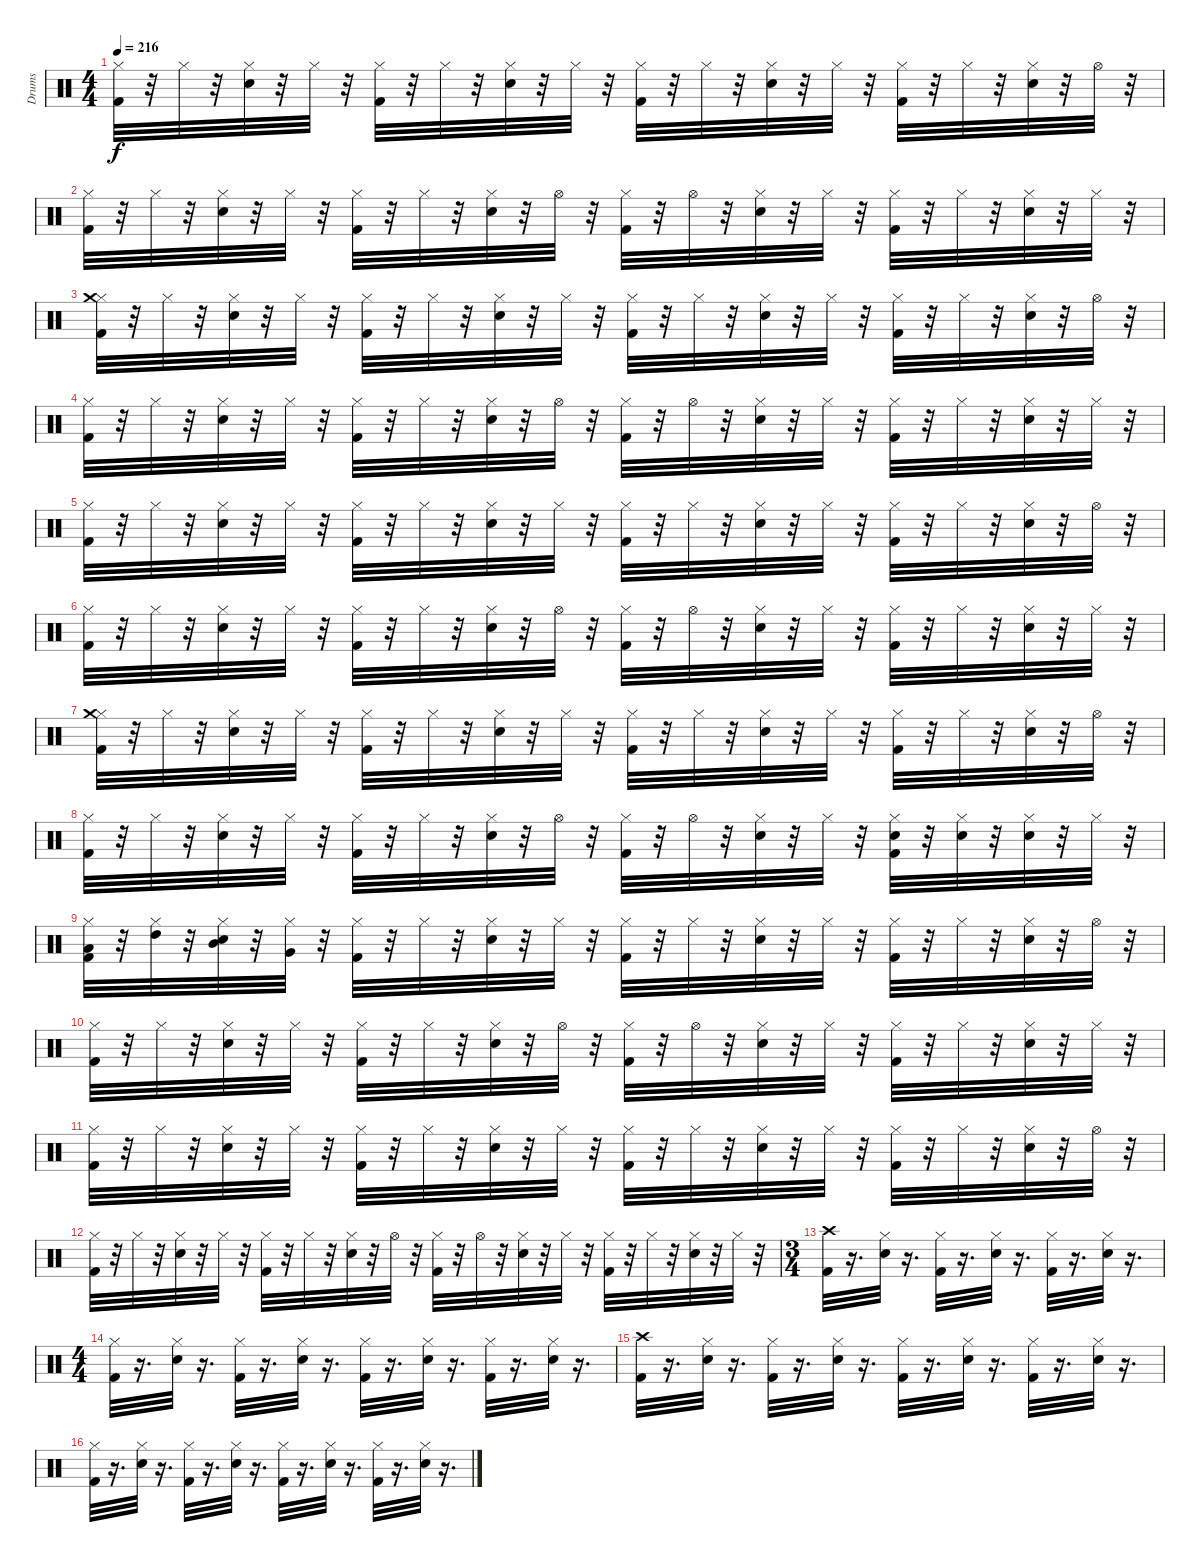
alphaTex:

\track ("Drums" "Drums") {instrument percussion}
\staff {score}
\articulation defaults
\ts (4 4)
\tempo 216
\clef neutral
\ks c
("Kick (hit) 2" "Hi-Hat (closed)").32{dy f} r.32 "Hi-Hat (closed)".32 r.32 ("Snare (hit) 2" "Hi-Hat (closed)").32 r.32 "Hi-Hat (closed)".32 r.32 ("Kick (hit) 2" "Hi-Hat (closed)").32 r.32 "Hi-Hat (closed)".32 r.32 ("Snare (hit) 2" "Hi-Hat (closed)").32 r.32 "Hi-Hat (closed)".32 r.32 ("Kick (hit) 2" "Hi-Hat (closed)").32 r.32 "Hi-Hat (closed)".32 r.32 ("Snare (hit) 2" "Hi-Hat (closed)").32 r.32 "Hi-Hat (closed)".32 r.32 ("Kick (hit) 2" "Hi-Hat (closed)").32 r.32 "Hi-Hat (closed)".32 r.32 ("Snare (hit) 2" "Hi-Hat (closed)").32 r.32 "Hi-Hat (open)".32 r.32 |
("Kick (hit) 2" "Hi-Hat (closed)").32 r.32 "Hi-Hat (closed)".32 r.32 ("Snare (hit) 2" "Hi-Hat (closed)").32 r.32 "Hi-Hat (closed)".32 r.32 ("Kick (hit) 2" "Hi-Hat (closed)").32 r.32 "Hi-Hat (closed)".32 r.32 ("Snare (hit) 2" "Hi-Hat (closed)").32 r.32 "Hi-Hat (open)".32 r.32 ("Kick (hit) 2" "Hi-Hat (closed)").32 r.32 "Hi-Hat (open)".32 r.32 ("Snare (hit) 2" "Hi-Hat (closed)").32 r.32 "Hi-Hat (closed)".32 r.32 ("Kick (hit) 2" "Hi-Hat (closed)").32 r.32 "Hi-Hat (closed)".32 r.32 ("Snare (hit) 2" "Hi-Hat (closed)").32 r.32 "Hi-Hat (closed)".32 r.32 |
("Kick (hit) 2" "Hi-Hat (closed)" "Crash medium (hit)").32 r.32 "Hi-Hat (closed)".32 r.32 ("Snare (hit) 2" "Hi-Hat (closed)").32 r.32 "Hi-Hat (closed)".32 r.32 ("Kick (hit) 2" "Hi-Hat (closed)").32 r.32 "Hi-Hat (closed)".32 r.32 ("Snare (hit) 2" "Hi-Hat (closed)").32 r.32 "Hi-Hat (closed)".32 r.32 ("Kick (hit) 2" "Hi-Hat (closed)").32 r.32 "Hi-Hat (closed)".32 r.32 ("Snare (hit) 2" "Hi-Hat (closed)").32 r.32 "Hi-Hat (closed)".32 r.32 ("Kick (hit) 2" "Hi-Hat (closed)").32 r.32 "Hi-Hat (closed)".32 r.32 ("Snare (hit) 2" "Hi-Hat (closed)").32 r.32 "Hi-Hat (open)".32 r.32 |
("Kick (hit) 2" "Hi-Hat (closed)").32 r.32 "Hi-Hat (closed)".32 r.32 ("Snare (hit) 2" "Hi-Hat (closed)").32 r.32 "Hi-Hat (closed)".32 r.32 ("Kick (hit) 2" "Hi-Hat (closed)").32 r.32 "Hi-Hat (closed)".32 r.32 ("Snare (hit) 2" "Hi-Hat (closed)").32 r.32 "Hi-Hat (open)".32 r.32 ("Kick (hit) 2" "Hi-Hat (closed)").32 r.32 "Hi-Hat (open)".32 r.32 ("Snare (hit) 2" "Hi-Hat (closed)").32 r.32 "Hi-Hat (closed)".32 r.32 ("Kick (hit) 2" "Hi-Hat (closed)").32 r.32 "Hi-Hat (closed)".32 r.32 ("Snare (hit) 2" "Hi-Hat (closed)").32 r.32 "Hi-Hat (closed)".32 r.32 |
("Kick (hit) 2" "Hi-Hat (closed)").32 r.32 "Hi-Hat (closed)".32 r.32 ("Snare (hit) 2" "Hi-Hat (closed)").32 r.32 "Hi-Hat (closed)".32 r.32 ("Kick (hit) 2" "Hi-Hat (closed)").32 r.32 "Hi-Hat (closed)".32 r.32 ("Snare (hit) 2" "Hi-Hat (closed)").32 r.32 "Hi-Hat (closed)".32 r.32 ("Kick (hit) 2" "Hi-Hat (closed)").32 r.32 "Hi-Hat (closed)".32 r.32 ("Snare (hit) 2" "Hi-Hat (closed)").32 r.32 "Hi-Hat (closed)".32 r.32 ("Kick (hit) 2" "Hi-Hat (closed)").32 r.32 "Hi-Hat (closed)".32 r.32 ("Snare (hit) 2" "Hi-Hat (closed)").32 r.32 "Hi-Hat (open)".32 r.32 |
("Kick (hit) 2" "Hi-Hat (closed)").32 r.32 "Hi-Hat (closed)".32 r.32 ("Snare (hit) 2" "Hi-Hat (closed)").32 r.32 "Hi-Hat (closed)".32 r.32 ("Kick (hit) 2" "Hi-Hat (closed)").32 r.32 "Hi-Hat (closed)".32 r.32 ("Snare (hit) 2" "Hi-Hat (closed)").32 r.32 "Hi-Hat (open)".32 r.32 ("Kick (hit) 2" "Hi-Hat (closed)").32 r.32 "Hi-Hat (open)".32 r.32 ("Snare (hit) 2" "Hi-Hat (closed)").32 r.32 "Hi-Hat (closed)".32 r.32 ("Kick (hit) 2" "Hi-Hat (closed)").32 r.32 "Hi-Hat (closed)".32 r.32 ("Snare (hit) 2" "Hi-Hat (closed)").32 r.32 "Hi-Hat (closed)".32 r.32 |
("Kick (hit) 2" "Hi-Hat (closed)" "Crash medium (hit)").32 r.32 "Hi-Hat (closed)".32 r.32 ("Snare (hit) 2" "Hi-Hat (closed)").32 r.32 "Hi-Hat (closed)".32 r.32 ("Kick (hit) 2" "Hi-Hat (closed)").32 r.32 "Hi-Hat (closed)".32 r.32 ("Snare (hit) 2" "Hi-Hat (closed)").32 r.32 "Hi-Hat (closed)".32 r.32 ("Kick (hit) 2" "Hi-Hat (closed)").32 r.32 "Hi-Hat (closed)".32 r.32 ("Snare (hit) 2" "Hi-Hat (closed)").32 r.32 "Hi-Hat (closed)".32 r.32 ("Kick (hit) 2" "Hi-Hat (closed)").32 r.32 "Hi-Hat (closed)".32 r.32 ("Snare (hit) 2" "Hi-Hat (closed)").32 r.32 "Hi-Hat (open)".32 r.32 |
("Kick (hit) 2" "Hi-Hat (closed)").32 r.32 "Hi-Hat (closed)".32 r.32 ("Snare (hit) 2" "Hi-Hat (closed)").32 r.32 "Hi-Hat (closed)".32 r.32 ("Kick (hit) 2" "Hi-Hat (closed)").32 r.32 "Hi-Hat (closed)".32 r.32 ("Snare (hit) 2" "Hi-Hat (closed)").32 r.32 "Hi-Hat (open)".32 r.32 ("Kick (hit) 2" "Hi-Hat (closed)").32 r.32 "Hi-Hat (open)".32 r.32 ("Snare (hit) 2" "Hi-Hat (closed)").32 r.32 "Hi-Hat (closed)".32 r.32 ("Kick (hit) 2" "Hi-Hat (closed)" "Snare (hit) 2").32 r.32 ("Hi-Hat (closed)" "Snare (hit) 2").32 r.32 ("Snare (hit) 2" "Hi-Hat (closed)").32 r.32 "Hi-Hat (closed)".32 r.32 |
("Kick (hit) 2" "Hi-Hat (closed)" "Low Tom (hit)").32 r.32 ("Hi-Hat (closed)" "High Tom (hit)").32 r.32 ("Snare (hit) 2" "Hi-Hat (closed)" "Mid Tom (hit)").32 r.32 ("Hi-Hat (closed)" "Very Low Tom (hit)").32 r.32 ("Kick (hit) 2" "Hi-Hat (closed)").32 r.32 "Hi-Hat (closed)".32 r.32 ("Snare (hit) 2" "Hi-Hat (closed)").32 r.32 "Hi-Hat (closed)".32 r.32 ("Kick (hit) 2" "Hi-Hat (closed)").32 r.32 "Hi-Hat (closed)".32 r.32 ("Snare (hit) 2" "Hi-Hat (closed)").32 r.32 "Hi-Hat (closed)".32 r.32 ("Kick (hit) 2" "Hi-Hat (closed)").32 r.32 "Hi-Hat (closed)".32 r.32 ("Snare (hit) 2" "Hi-Hat (closed)").32 r.32 "Hi-Hat (open)".32 r.32 |
("Kick (hit) 2" "Hi-Hat (closed)").32 r.32 "Hi-Hat (closed)".32 r.32 ("Snare (hit) 2" "Hi-Hat (closed)").32 r.32 "Hi-Hat (closed)".32 r.32 ("Kick (hit) 2" "Hi-Hat (closed)").32 r.32 "Hi-Hat (closed)".32 r.32 ("Snare (hit) 2" "Hi-Hat (closed)").32 r.32 "Hi-Hat (open)".32 r.32 ("Kick (hit) 2" "Hi-Hat (closed)").32 r.32 "Hi-Hat (open)".32 r.32 ("Snare (hit) 2" "Hi-Hat (closed)").32 r.32 "Hi-Hat (closed)".32 r.32 ("Kick (hit) 2" "Hi-Hat (closed)").32 r.32 "Hi-Hat (closed)".32 r.32 ("Snare (hit) 2" "Hi-Hat (closed)").32 r.32 "Hi-Hat (closed)".32 r.32 |
("Kick (hit) 2" "Hi-Hat (closed)").32 r.32 "Hi-Hat (closed)".32 r.32 ("Snare (hit) 2" "Hi-Hat (closed)").32 r.32 "Hi-Hat (closed)".32 r.32 ("Kick (hit) 2" "Hi-Hat (closed)").32 r.32 "Hi-Hat (closed)".32 r.32 ("Snare (hit) 2" "Hi-Hat (closed)").32 r.32 "Hi-Hat (closed)".32 r.32 ("Kick (hit) 2" "Hi-Hat (closed)").32 r.32 "Hi-Hat (closed)".32 r.32 ("Snare (hit) 2" "Hi-Hat (closed)").32 r.32 "Hi-Hat (closed)".32 r.32 ("Kick (hit) 2" "Hi-Hat (closed)").32 r.32 "Hi-Hat (closed)".32 r.32 ("Snare (hit) 2" "Hi-Hat (closed)").32 r.32 "Hi-Hat (open)".32 r.32 |
("Kick (hit) 2" "Hi-Hat (closed)").32 r.32 "Hi-Hat (closed)".32 r.32 ("Snare (hit) 2" "Hi-Hat (closed)").32 r.32 "Hi-Hat (closed)".32 r.32 ("Kick (hit) 2" "Hi-Hat (closed)").32 r.32 "Hi-Hat (closed)".32 r.32 ("Snare (hit) 2" "Hi-Hat (closed)").32 r.32 "Hi-Hat (open)".32 r.32 ("Kick (hit) 2" "Hi-Hat (closed)").32 r.32 "Hi-Hat (open)".32 r.32 ("Snare (hit) 2" "Hi-Hat (closed)").32 r.32 "Hi-Hat (closed)".32 r.32 ("Kick (hit) 2" "Hi-Hat (closed)").32 r.32 "Hi-Hat (closed)".32 r.32 ("Snare (hit) 2" "Hi-Hat (closed)").32 r.32 "Hi-Hat (closed)".32 r.32 |
\ts (3 4)
("Kick (hit) 2" "Crash high (hit)").32 r.16{d} ("Snare (hit) 2" "Hi-Hat (closed)").32 r.16{d} ("Kick (hit) 2" "Hi-Hat (closed)").32 r.16{d} ("Snare (hit) 2" "Hi-Hat (closed)").32 r.16{d} ("Kick (hit) 2" "Hi-Hat (closed)").32 r.16{d} ("Snare (hit) 2" "Hi-Hat (closed)").32 r.16{d} |
\ts (4 4)
("Kick (hit) 2" "Hi-Hat (closed)").32 r.16{d} ("Snare (hit) 2" "Hi-Hat (closed)").32 r.16{d} ("Kick (hit) 2" "Hi-Hat (closed)").32 r.16{d} ("Snare (hit) 2" "Hi-Hat (closed)").32 r.16{d} ("Kick (hit) 2" "Hi-Hat (closed)").32 r.16{d} ("Snare (hit) 2" "Hi-Hat (closed)").32 r.16{d} ("Kick (hit) 2" "Hi-Hat (closed)").32 r.16{d} ("Snare (hit) 2" "Hi-Hat (closed)").32 r.16{d} |
("Kick (hit) 2" "Crash high (hit)").32 r.16{d} ("Snare (hit) 2" "Hi-Hat (closed)").32 r.16{d} ("Kick (hit) 2" "Hi-Hat (closed)").32 r.16{d} ("Snare (hit) 2" "Hi-Hat (closed)").32 r.16{d} ("Kick (hit) 2" "Hi-Hat (closed)").32 r.16{d} ("Snare (hit) 2" "Hi-Hat (closed)").32 r.16{d} ("Kick (hit) 2" "Hi-Hat (closed)").32 r.16{d} ("Snare (hit) 2" "Hi-Hat (closed)").32 r.16{d} |
("Kick (hit) 2" "Hi-Hat (closed)").32 r.16{d} ("Snare (hit) 2" "Hi-Hat (closed)").32 r.16{d} ("Kick (hit) 2" "Hi-Hat (closed)").32 r.16{d} ("Snare (hit) 2" "Hi-Hat (closed)").32 r.16{d} ("Kick (hit) 2" "Hi-Hat (closed)").32 r.16{d} ("Snare (hit) 2" "Hi-Hat (closed)").32 r.16{d} ("Kick (hit) 2" "Hi-Hat (closed)").32 r.16{d} ("Snare (hit) 2" "Hi-Hat (closed)").32 r.16{d}
